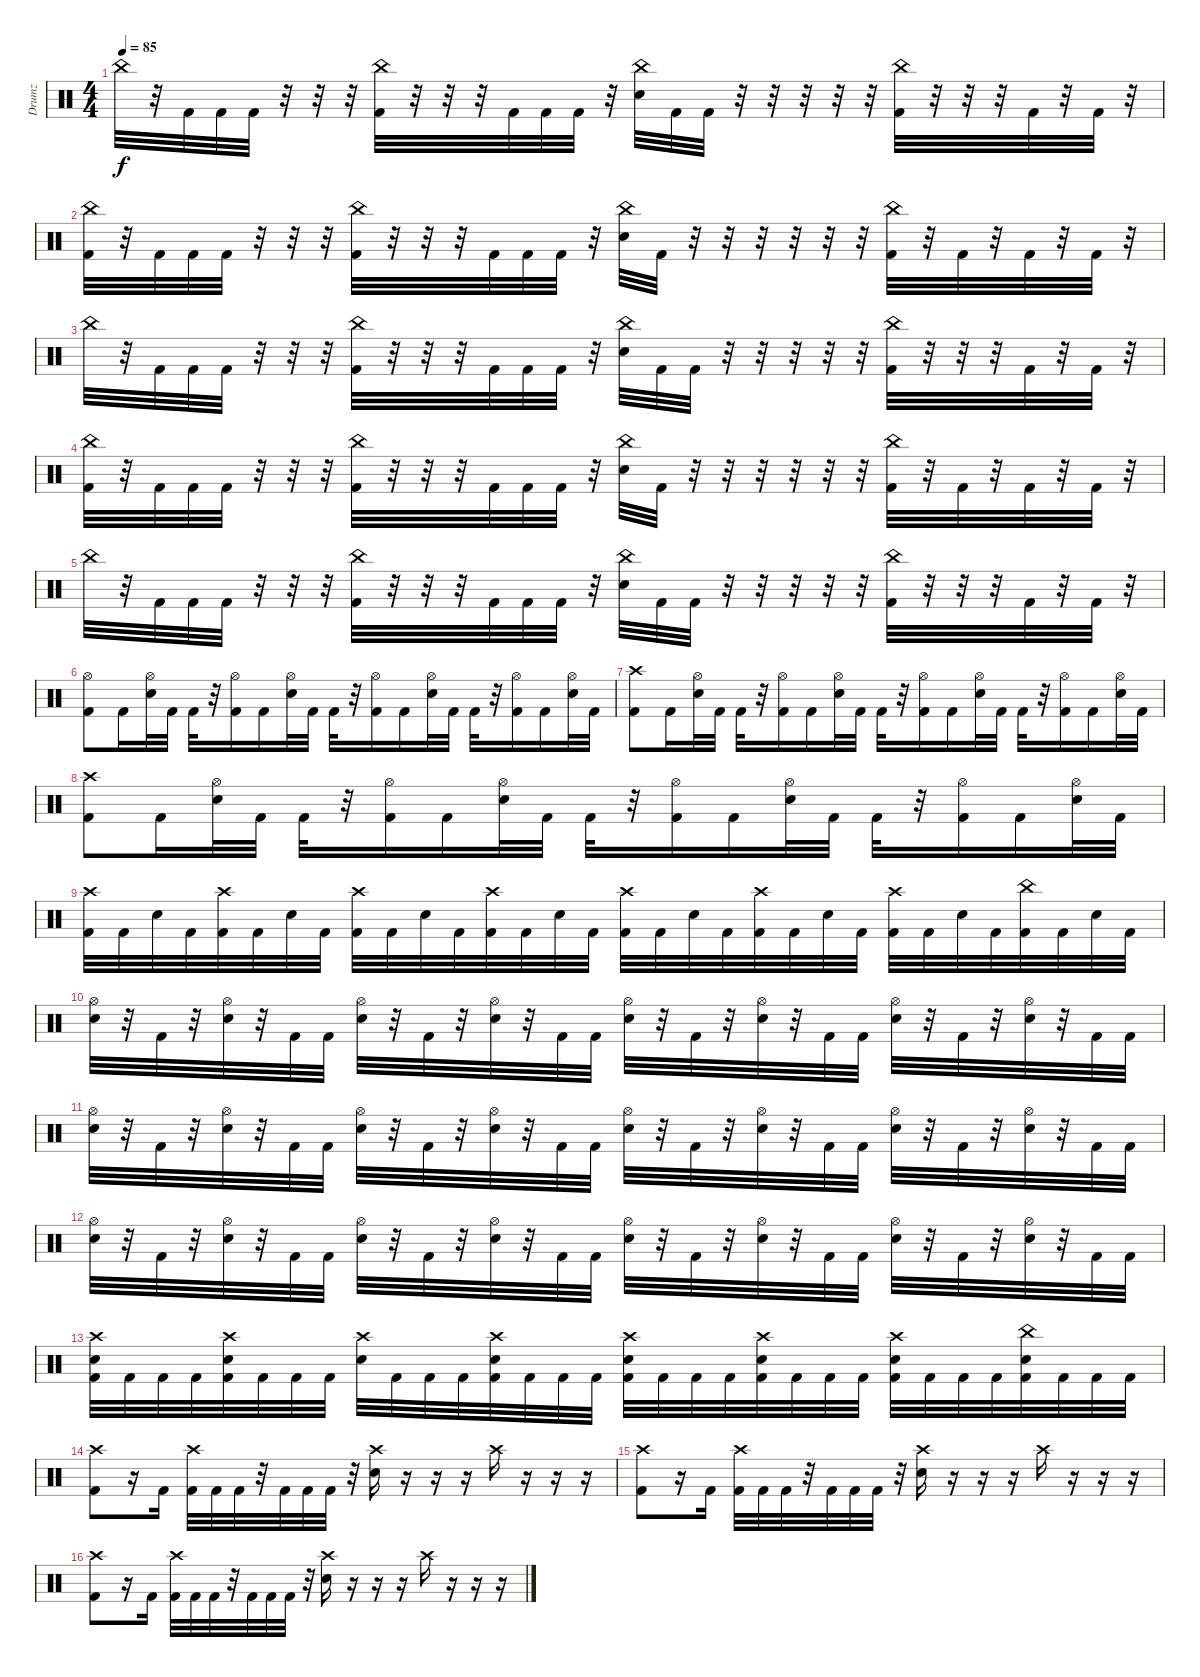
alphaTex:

\track ("Drumz" "Drumz") {instrument percussion}
\staff {score}
\articulation defaults
\ts (4 4)
\tempo 85
\clef neutral
\ks c "China (hit)".32{dy f}
r.32 "Kick (hit) 2".32 "Kick (hit) 2".32 "Kick (hit) 2".32 r.32 r.32 r.32 ("China (hit)" "Kick (hit) 2").32 r.32 r.32 r.32 "Kick (hit) 2".32 "Kick (hit) 2".32 "Kick (hit) 2".32 r.32 ("China (hit)" "Snare (hit) 2").32 "Kick (hit) 2".32 "Kick (hit) 2".32 r.32 r.32 r.32 r.32 r.32 ("China (hit)" "Kick (hit) 2").32 r.32 r.32 r.32 "Kick (hit) 2".32 r.32 "Kick (hit) 2".32 r.32 |
("China (hit)" "Kick (hit) 2").32 r.32 "Kick (hit) 2".32 "Kick (hit) 2".32 "Kick (hit) 2".32 r.32 r.32 r.32 ("China (hit)" "Kick (hit) 2").32 r.32 r.32 r.32 "Kick (hit) 2".32 "Kick (hit) 2".32 "Kick (hit) 2".32 r.32 ("China (hit)" "Snare (hit) 2").32 "Kick (hit) 2".32 r.32 r.32 r.32 r.32 r.32 r.32 ("China (hit)" "Kick (hit) 2").32 r.32 "Kick (hit) 2".32 r.32 "Kick (hit) 2".32 r.32 "Kick (hit) 2".32 r.32 |
"China (hit)".32 r.32 "Kick (hit) 2".32 "Kick (hit) 2".32 "Kick (hit) 2".32 r.32 r.32 r.32 ("China (hit)" "Kick (hit) 2").32 r.32 r.32 r.32 "Kick (hit) 2".32 "Kick (hit) 2".32 "Kick (hit) 2".32 r.32 ("China (hit)" "Snare (hit) 2").32 "Kick (hit) 2".32 "Kick (hit) 2".32 r.32 r.32 r.32 r.32 r.32 ("China (hit)" "Kick (hit) 2").32 r.32 r.32 r.32 "Kick (hit) 2".32 r.32 "Kick (hit) 2".32 r.32 |
("China (hit)" "Kick (hit) 2").32 r.32 "Kick (hit) 2".32 "Kick (hit) 2".32 "Kick (hit) 2".32 r.32 r.32 r.32 ("China (hit)" "Kick (hit) 2").32 r.32 r.32 r.32 "Kick (hit) 2".32 "Kick (hit) 2".32 "Kick (hit) 2".32 r.32 ("China (hit)" "Snare (hit) 2").32 "Kick (hit) 2".32 r.32 r.32 r.32 r.32 r.32 r.32 ("China (hit)" "Kick (hit) 2").32 r.32 "Kick (hit) 2".32 r.32 "Kick (hit) 2".32 r.32 "Kick (hit) 2".32 r.32 |
"China (hit)".32 r.32 "Kick (hit) 2".32 "Kick (hit) 2".32 "Kick (hit) 2".32 r.32 r.32 r.32 ("China (hit)" "Kick (hit) 2").32 r.32 r.32 r.32 "Kick (hit) 2".32 "Kick (hit) 2".32 "Kick (hit) 2".32 r.32 ("China (hit)" "Snare (hit) 2").32 "Kick (hit) 2".32 "Kick (hit) 2".32 r.32 r.32 r.32 r.32 r.32 ("China (hit)" "Kick (hit) 2").32 r.32 r.32 r.32 "Kick (hit) 2".32 r.32 "Kick (hit) 2".32 r.32 |
("Hi-Hat (open)" "Kick (hit) 2").8 "Kick (hit) 2".16 ("Hi-Hat (open)" "Snare (hit) 2").32 "Kick (hit) 2".32 "Kick (hit) 2".32 r.32 ("Hi-Hat (open)" "Kick (hit) 2").16 "Kick (hit) 2".16 ("Hi-Hat (open)" "Snare (hit) 2").32 "Kick (hit) 2".32 "Kick (hit) 2".32 r.32 ("Hi-Hat (open)" "Kick (hit) 2").16 "Kick (hit) 2".16 ("Hi-Hat (open)" "Snare (hit) 2").32 "Kick (hit) 2".32 "Kick (hit) 2".32 r.32 ("Hi-Hat (open)" "Kick (hit) 2").16 "Kick (hit) 2".16 ("Hi-Hat (open)" "Snare (hit) 2").32 "Kick (hit) 2".32 |
("Crash high (hit)" "Kick (hit) 2").8 "Kick (hit) 2".16 ("Hi-Hat (open)" "Snare (hit) 2").32 "Kick (hit) 2".32 "Kick (hit) 2".32 r.32 ("Hi-Hat (open)" "Kick (hit) 2").16 "Kick (hit) 2".16 ("Hi-Hat (open)" "Snare (hit) 2").32 "Kick (hit) 2".32 "Kick (hit) 2".32 r.32 ("Hi-Hat (open)" "Kick (hit) 2").16 "Kick (hit) 2".16 ("Hi-Hat (open)" "Snare (hit) 2").32 "Kick (hit) 2".32 "Kick (hit) 2".32 r.32 ("Hi-Hat (open)" "Kick (hit) 2").16 "Kick (hit) 2".16 ("Hi-Hat (open)" "Snare (hit) 2").32 "Kick (hit) 2".32 |
("Crash high (hit)" "Kick (hit) 2").8 "Kick (hit) 2".16 ("Hi-Hat (open)" "Snare (hit) 2").32 "Kick (hit) 2".32 "Kick (hit) 2".32 r.32 ("Hi-Hat (open)" "Kick (hit) 2").16 "Kick (hit) 2".16 ("Hi-Hat (open)" "Snare (hit) 2").32 "Kick (hit) 2".32 "Kick (hit) 2".32 r.32 ("Hi-Hat (open)" "Kick (hit) 2").16 "Kick (hit) 2".16 ("Hi-Hat (open)" "Snare (hit) 2").32 "Kick (hit) 2".32 "Kick (hit) 2".32 r.32 ("Hi-Hat (open)" "Kick (hit) 2").16 "Kick (hit) 2".16 ("Hi-Hat (open)" "Snare (hit) 2").32 "Kick (hit) 2".32 |
("Crash high (hit)" "Kick (hit) 2").32 "Kick (hit) 2".32 "Snare (hit) 2".32 "Kick (hit) 2".32 ("Crash high (hit)" "Kick (hit) 2").32 "Kick (hit) 2".32 "Snare (hit) 2".32 "Kick (hit) 2".32 ("Crash high (hit)" "Kick (hit) 2").32 "Kick (hit) 2".32 "Snare (hit) 2".32 "Kick (hit) 2".32 ("Crash high (hit)" "Kick (hit) 2").32 "Kick (hit) 2".32 "Snare (hit) 2".32 "Kick (hit) 2".32 ("Crash high (hit)" "Kick (hit) 2").32 "Kick (hit) 2".32 "Snare (hit) 2".32 "Kick (hit) 2".32 ("Crash high (hit)" "Kick (hit) 2").32 "Kick (hit) 2".32 "Snare (hit) 2".32 "Kick (hit) 2".32 ("Crash high (hit)" "Kick (hit) 2").32 "Kick (hit) 2".32 "Snare (hit) 2".32 "Kick (hit) 2".32 ("China (hit)" "Kick (hit) 2").32 "Kick (hit) 2".32 "Snare (hit) 2".32 "Kick (hit) 2".32 |
("Hi-Hat (open)" "Snare (hit) 2").32 r.32 "Kick (hit) 2".32 r.32 ("Hi-Hat (open)" "Snare (hit) 2").32 r.32 "Kick (hit) 2".32 "Kick (hit) 2".32 ("Hi-Hat (open)" "Snare (hit) 2").32 r.32 "Kick (hit) 2".32 r.32 ("Hi-Hat (open)" "Snare (hit) 2").32 r.32 "Kick (hit) 2".32 "Kick (hit) 2".32 ("Hi-Hat (open)" "Snare (hit) 2").32 r.32 "Kick (hit) 2".32 r.32 ("Hi-Hat (open)" "Snare (hit) 2").32 r.32 "Kick (hit) 2".32 "Kick (hit) 2".32 ("Hi-Hat (open)" "Snare (hit) 2").32 r.32 "Kick (hit) 2".32 r.32 ("Hi-Hat (open)" "Snare (hit) 2").32 r.32 "Kick (hit) 2".32 "Kick (hit) 2".32 |
("Hi-Hat (open)" "Snare (hit) 2").32 r.32 "Kick (hit) 2".32 r.32 ("Hi-Hat (open)" "Snare (hit) 2").32 r.32 "Kick (hit) 2".32 "Kick (hit) 2".32 ("Hi-Hat (open)" "Snare (hit) 2").32 r.32 "Kick (hit) 2".32 r.32 ("Hi-Hat (open)" "Snare (hit) 2").32 r.32 "Kick (hit) 2".32 "Kick (hit) 2".32 ("Hi-Hat (open)" "Snare (hit) 2").32 r.32 "Kick (hit) 2".32 r.32 ("Hi-Hat (open)" "Snare (hit) 2").32 r.32 "Kick (hit) 2".32 "Kick (hit) 2".32 ("Hi-Hat (open)" "Snare (hit) 2").32 r.32 "Kick (hit) 2".32 r.32 ("Hi-Hat (open)" "Snare (hit) 2").32 r.32 "Kick (hit) 2".32 "Kick (hit) 2".32 |
("Hi-Hat (open)" "Snare (hit) 2").32 r.32 "Kick (hit) 2".32 r.32 ("Hi-Hat (open)" "Snare (hit) 2").32 r.32 "Kick (hit) 2".32 "Kick (hit) 2".32 ("Hi-Hat (open)" "Snare (hit) 2").32 r.32 "Kick (hit) 2".32 r.32 ("Hi-Hat (open)" "Snare (hit) 2").32 r.32 "Kick (hit) 2".32 "Kick (hit) 2".32 ("Hi-Hat (open)" "Snare (hit) 2").32 r.32 "Kick (hit) 2".32 r.32 ("Hi-Hat (open)" "Snare (hit) 2").32 r.32 "Kick (hit) 2".32 "Kick (hit) 2".32 ("Hi-Hat (open)" "Snare (hit) 2").32 r.32 "Kick (hit) 2".32 r.32 ("Hi-Hat (open)" "Snare (hit) 2").32 r.32 "Kick (hit) 2".32 "Kick (hit) 2".32 |
("Crash high (hit)" "Snare (hit) 2" "Kick (hit) 2").32 "Kick (hit) 2".32 "Kick (hit) 2".32 "Kick (hit) 2".32 ("Crash high (hit)" "Snare (hit) 2" "Kick (hit) 2").32 "Kick (hit) 2".32 "Kick (hit) 2".32 "Kick (hit) 2".32 ("Crash high (hit)" "Snare (hit) 2").32 "Kick (hit) 2".32 "Kick (hit) 2".32 "Kick (hit) 2".32 ("Crash high (hit)" "Snare (hit) 2" "Kick (hit) 2").32 "Kick (hit) 2".32 "Kick (hit) 2".32 "Kick (hit) 2".32 ("Crash high (hit)" "Snare (hit) 2" "Kick (hit) 2").32 "Kick (hit) 2".32 "Kick (hit) 2".32 "Kick (hit) 2".32 ("Crash high (hit)" "Snare (hit) 2" "Kick (hit) 2").32 "Kick (hit) 2".32 "Kick (hit) 2".32 "Kick (hit) 2".32 ("Crash high (hit)" "Snare (hit) 2" "Kick (hit) 2").32 "Kick (hit) 2".32 "Kick (hit) 2".32 "Kick (hit) 2".32 ("China (hit)" "Snare (hit) 2" "Kick (hit) 2").32 "Kick (hit) 2".32 "Kick (hit) 2".32 "Kick (hit) 2".32 |
("Crash high (hit)" "Kick (hit) 2").8 r.16 "Kick (hit) 2".16 ("Crash high (hit)" "Kick (hit) 2").32 "Kick (hit) 2".32 "Kick (hit) 2".32 r.32 "Kick (hit) 2".32 "Kick (hit) 2".32 "Kick (hit) 2".32 r.32 ("Crash high (hit)" "Snare (hit) 2").16 r.16 r.16 r.16 "Crash high (hit)".16 r.16 r.16 r.16 |
("Crash high (hit)" "Kick (hit) 2").8 r.16 "Kick (hit) 2".16 ("Crash high (hit)" "Kick (hit) 2").32 "Kick (hit) 2".32 "Kick (hit) 2".32 r.32 "Kick (hit) 2".32 "Kick (hit) 2".32 "Kick (hit) 2".32 r.32 ("Crash high (hit)" "Snare (hit) 2").16 r.16 r.16 r.16 "Crash high (hit)".16 r.16 r.16 r.16 |
("Crash high (hit)" "Kick (hit) 2").8 r.16 "Kick (hit) 2".16 ("Crash high (hit)" "Kick (hit) 2").32 "Kick (hit) 2".32 "Kick (hit) 2".32 r.32 "Kick (hit) 2".32 "Kick (hit) 2".32 "Kick (hit) 2".32 r.32 ("Crash high (hit)" "Snare (hit) 2").16 r.16 r.16 r.16 "Crash high (hit)".16 r.16 r.16 r.16
